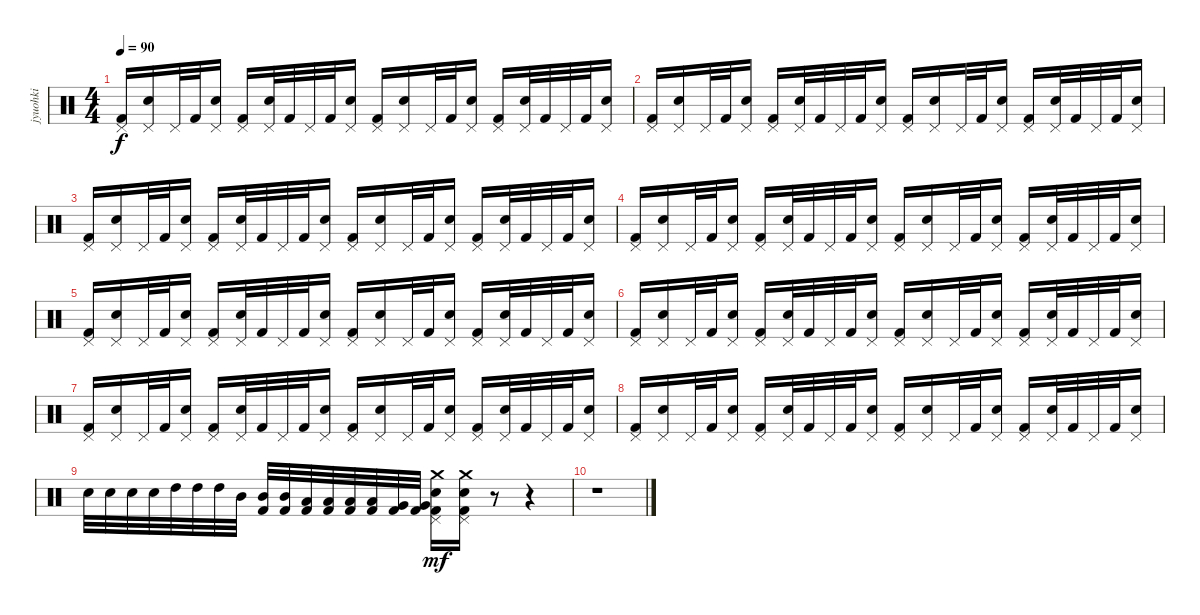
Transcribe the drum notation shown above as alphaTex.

\track ("jyuohki" "jyuohki") {instrument percussion}
\staff {score}
\articulation defaults
\ts (4 4)
\tempo 90
\clef neutral
\ks c
("Pedal Hi-Hat (hit)" "Kick (hit) 2").16{dy f} ("Pedal Hi-Hat (hit)" "Electric Snare (hit)").16 "Pedal Hi-Hat (hit)".32 "Kick (hit) 2".32 ("Pedal Hi-Hat (hit)" "Electric Snare (hit)").16 ("Pedal Hi-Hat (hit)" "Kick (hit) 2").16 ("Pedal Hi-Hat (hit)" "Electric Snare (hit)").32 "Kick (hit) 2".32 "Pedal Hi-Hat (hit)".32 "Kick (hit) 2".32 ("Pedal Hi-Hat (hit)" "Electric Snare (hit)").16 ("Pedal Hi-Hat (hit)" "Kick (hit) 2").16 ("Pedal Hi-Hat (hit)" "Electric Snare (hit)").16 "Pedal Hi-Hat (hit)".32 "Kick (hit) 2".32 ("Pedal Hi-Hat (hit)" "Electric Snare (hit)").16 ("Pedal Hi-Hat (hit)" "Kick (hit) 2").16 ("Pedal Hi-Hat (hit)" "Electric Snare (hit)").32 "Kick (hit) 2".32 "Pedal Hi-Hat (hit)".32 "Kick (hit) 2".32 ("Pedal Hi-Hat (hit)" "Electric Snare (hit)").16 |
("Pedal Hi-Hat (hit)" "Kick (hit) 2").16 ("Pedal Hi-Hat (hit)" "Electric Snare (hit)").16 "Pedal Hi-Hat (hit)".32 "Kick (hit) 2".32 ("Pedal Hi-Hat (hit)" "Electric Snare (hit)").16 ("Pedal Hi-Hat (hit)" "Kick (hit) 2").16 ("Pedal Hi-Hat (hit)" "Electric Snare (hit)").32 "Kick (hit) 2".32 "Pedal Hi-Hat (hit)".32 "Kick (hit) 2".32 ("Pedal Hi-Hat (hit)" "Electric Snare (hit)").16 ("Pedal Hi-Hat (hit)" "Kick (hit) 2").16 ("Pedal Hi-Hat (hit)" "Electric Snare (hit)").16 "Pedal Hi-Hat (hit)".32 "Kick (hit) 2".32 ("Pedal Hi-Hat (hit)" "Electric Snare (hit)").16 ("Pedal Hi-Hat (hit)" "Kick (hit) 2").16 ("Pedal Hi-Hat (hit)" "Electric Snare (hit)").32 "Kick (hit) 2".32 "Pedal Hi-Hat (hit)".32 "Kick (hit) 2".32 ("Pedal Hi-Hat (hit)" "Electric Snare (hit)").16 |
("Pedal Hi-Hat (hit)" "Kick (hit) 2").16 ("Pedal Hi-Hat (hit)" "Electric Snare (hit)").16 "Pedal Hi-Hat (hit)".32 "Kick (hit) 2".32 ("Pedal Hi-Hat (hit)" "Electric Snare (hit)").16 ("Pedal Hi-Hat (hit)" "Kick (hit) 2").16 ("Pedal Hi-Hat (hit)" "Electric Snare (hit)").32 "Kick (hit) 2".32 "Pedal Hi-Hat (hit)".32 "Kick (hit) 2".32 ("Pedal Hi-Hat (hit)" "Electric Snare (hit)").16 ("Pedal Hi-Hat (hit)" "Kick (hit) 2").16 ("Pedal Hi-Hat (hit)" "Electric Snare (hit)").16 "Pedal Hi-Hat (hit)".32 "Kick (hit) 2".32 ("Pedal Hi-Hat (hit)" "Electric Snare (hit)").16 ("Pedal Hi-Hat (hit)" "Kick (hit) 2").16 ("Pedal Hi-Hat (hit)" "Electric Snare (hit)").32 "Kick (hit) 2".32 "Pedal Hi-Hat (hit)".32 "Kick (hit) 2".32 ("Pedal Hi-Hat (hit)" "Electric Snare (hit)").16 |
("Pedal Hi-Hat (hit)" "Kick (hit) 2").16 ("Pedal Hi-Hat (hit)" "Electric Snare (hit)").16 "Pedal Hi-Hat (hit)".32 "Kick (hit) 2".32 ("Pedal Hi-Hat (hit)" "Electric Snare (hit)").16 ("Pedal Hi-Hat (hit)" "Kick (hit) 2").16 ("Pedal Hi-Hat (hit)" "Electric Snare (hit)").32 "Kick (hit) 2".32 "Pedal Hi-Hat (hit)".32 "Kick (hit) 2".32 ("Pedal Hi-Hat (hit)" "Electric Snare (hit)").16 ("Pedal Hi-Hat (hit)" "Kick (hit) 2").16 ("Pedal Hi-Hat (hit)" "Electric Snare (hit)").16 "Pedal Hi-Hat (hit)".32 "Kick (hit) 2".32 ("Pedal Hi-Hat (hit)" "Electric Snare (hit)").16 ("Pedal Hi-Hat (hit)" "Kick (hit) 2").16 ("Pedal Hi-Hat (hit)" "Electric Snare (hit)").32 "Kick (hit) 2".32 "Pedal Hi-Hat (hit)".32 "Kick (hit) 2".32 ("Pedal Hi-Hat (hit)" "Electric Snare (hit)").16 |
("Pedal Hi-Hat (hit)" "Kick (hit) 2").16 ("Pedal Hi-Hat (hit)" "Electric Snare (hit)").16 "Pedal Hi-Hat (hit)".32 "Kick (hit) 2".32 ("Pedal Hi-Hat (hit)" "Electric Snare (hit)").16 ("Pedal Hi-Hat (hit)" "Kick (hit) 2").16 ("Pedal Hi-Hat (hit)" "Electric Snare (hit)").32 "Kick (hit) 2".32 "Pedal Hi-Hat (hit)".32 "Kick (hit) 2".32 ("Pedal Hi-Hat (hit)" "Electric Snare (hit)").16 ("Pedal Hi-Hat (hit)" "Kick (hit) 2").16 ("Pedal Hi-Hat (hit)" "Electric Snare (hit)").16 "Pedal Hi-Hat (hit)".32 "Kick (hit) 2".32 ("Pedal Hi-Hat (hit)" "Electric Snare (hit)").16 ("Pedal Hi-Hat (hit)" "Kick (hit) 2").16 ("Pedal Hi-Hat (hit)" "Electric Snare (hit)").32 "Kick (hit) 2".32 "Pedal Hi-Hat (hit)".32 "Kick (hit) 2".32 ("Pedal Hi-Hat (hit)" "Electric Snare (hit)").16 |
("Pedal Hi-Hat (hit)" "Kick (hit) 2").16 ("Pedal Hi-Hat (hit)" "Electric Snare (hit)").16 "Pedal Hi-Hat (hit)".32 "Kick (hit) 2".32 ("Pedal Hi-Hat (hit)" "Electric Snare (hit)").16 ("Pedal Hi-Hat (hit)" "Kick (hit) 2").16 ("Pedal Hi-Hat (hit)" "Electric Snare (hit)").32 "Kick (hit) 2".32 "Pedal Hi-Hat (hit)".32 "Kick (hit) 2".32 ("Pedal Hi-Hat (hit)" "Electric Snare (hit)").16 ("Pedal Hi-Hat (hit)" "Kick (hit) 2").16 ("Pedal Hi-Hat (hit)" "Electric Snare (hit)").16 "Pedal Hi-Hat (hit)".32 "Kick (hit) 2".32 ("Pedal Hi-Hat (hit)" "Electric Snare (hit)").16 ("Pedal Hi-Hat (hit)" "Kick (hit) 2").16 ("Pedal Hi-Hat (hit)" "Electric Snare (hit)").32 "Kick (hit) 2".32 "Pedal Hi-Hat (hit)".32 "Kick (hit) 2".32 ("Pedal Hi-Hat (hit)" "Electric Snare (hit)").16 |
("Pedal Hi-Hat (hit)" "Kick (hit) 2").16 ("Pedal Hi-Hat (hit)" "Electric Snare (hit)").16 "Pedal Hi-Hat (hit)".32 "Kick (hit) 2".32 ("Pedal Hi-Hat (hit)" "Electric Snare (hit)").16 ("Pedal Hi-Hat (hit)" "Kick (hit) 2").16 ("Pedal Hi-Hat (hit)" "Electric Snare (hit)").32 "Kick (hit) 2".32 "Pedal Hi-Hat (hit)".32 "Kick (hit) 2".32 ("Pedal Hi-Hat (hit)" "Electric Snare (hit)").16 ("Pedal Hi-Hat (hit)" "Kick (hit) 2").16 ("Pedal Hi-Hat (hit)" "Electric Snare (hit)").16 "Pedal Hi-Hat (hit)".32 "Kick (hit) 2".32 ("Pedal Hi-Hat (hit)" "Electric Snare (hit)").16 ("Pedal Hi-Hat (hit)" "Kick (hit) 2").16 ("Pedal Hi-Hat (hit)" "Electric Snare (hit)").32 "Kick (hit) 2".32 "Pedal Hi-Hat (hit)".32 "Kick (hit) 2".32 ("Pedal Hi-Hat (hit)" "Electric Snare (hit)").16 |
("Pedal Hi-Hat (hit)" "Kick (hit) 2").16 ("Pedal Hi-Hat (hit)" "Electric Snare (hit)").16 "Pedal Hi-Hat (hit)".32 "Kick (hit) 2".32 ("Pedal Hi-Hat (hit)" "Electric Snare (hit)").16 ("Pedal Hi-Hat (hit)" "Kick (hit) 2").16 ("Pedal Hi-Hat (hit)" "Electric Snare (hit)").32 "Kick (hit) 2".32 "Pedal Hi-Hat (hit)".32 "Kick (hit) 2".32 ("Pedal Hi-Hat (hit)" "Electric Snare (hit)").16 ("Pedal Hi-Hat (hit)" "Kick (hit) 2").16 ("Pedal Hi-Hat (hit)" "Electric Snare (hit)").16 "Pedal Hi-Hat (hit)".32 "Kick (hit) 2".32 ("Pedal Hi-Hat (hit)" "Electric Snare (hit)").16 ("Pedal Hi-Hat (hit)" "Kick (hit) 2").16 ("Pedal Hi-Hat (hit)" "Electric Snare (hit)").32 "Kick (hit) 2".32 "Pedal Hi-Hat (hit)".32 "Kick (hit) 2".32 ("Pedal Hi-Hat (hit)" "Electric Snare (hit)").16 |
"Electric Snare (hit)".32 "Electric Snare (hit)".32 "Electric Snare (hit)".32 "Electric Snare (hit)".32 "High Tom (hit)".32 "High Tom (hit)".32 "High Tom (hit)".32 "Mid Tom (hit)".32 ("Mid Tom (hit)" "Kick (hit) 2").32 ("Mid Tom (hit)" "Kick (hit) 2").32 ("Low Tom (hit)" "Kick (hit) 2").32 ("Low Tom (hit)" "Kick (hit) 2").32 ("Low Tom (hit)" "Kick (hit) 2").32 ("Low Tom (hit)" "Kick (hit) 2").32 ("Very Low Tom (hit)" "Kick (hit) 2").32 ("Very Low Tom (hit)" "Kick (hit) 2").32 ("Crash medium (hit)" "Pedal Hi-Hat (hit)" "Electric Snare (hit)" "Kick (hit) 2").16{dy mf} ("Crash medium (hit)" "Pedal Hi-Hat (hit)" "Electric Snare (hit)" "Kick (hit) 2").16 r.8 r.4 |
r.1
